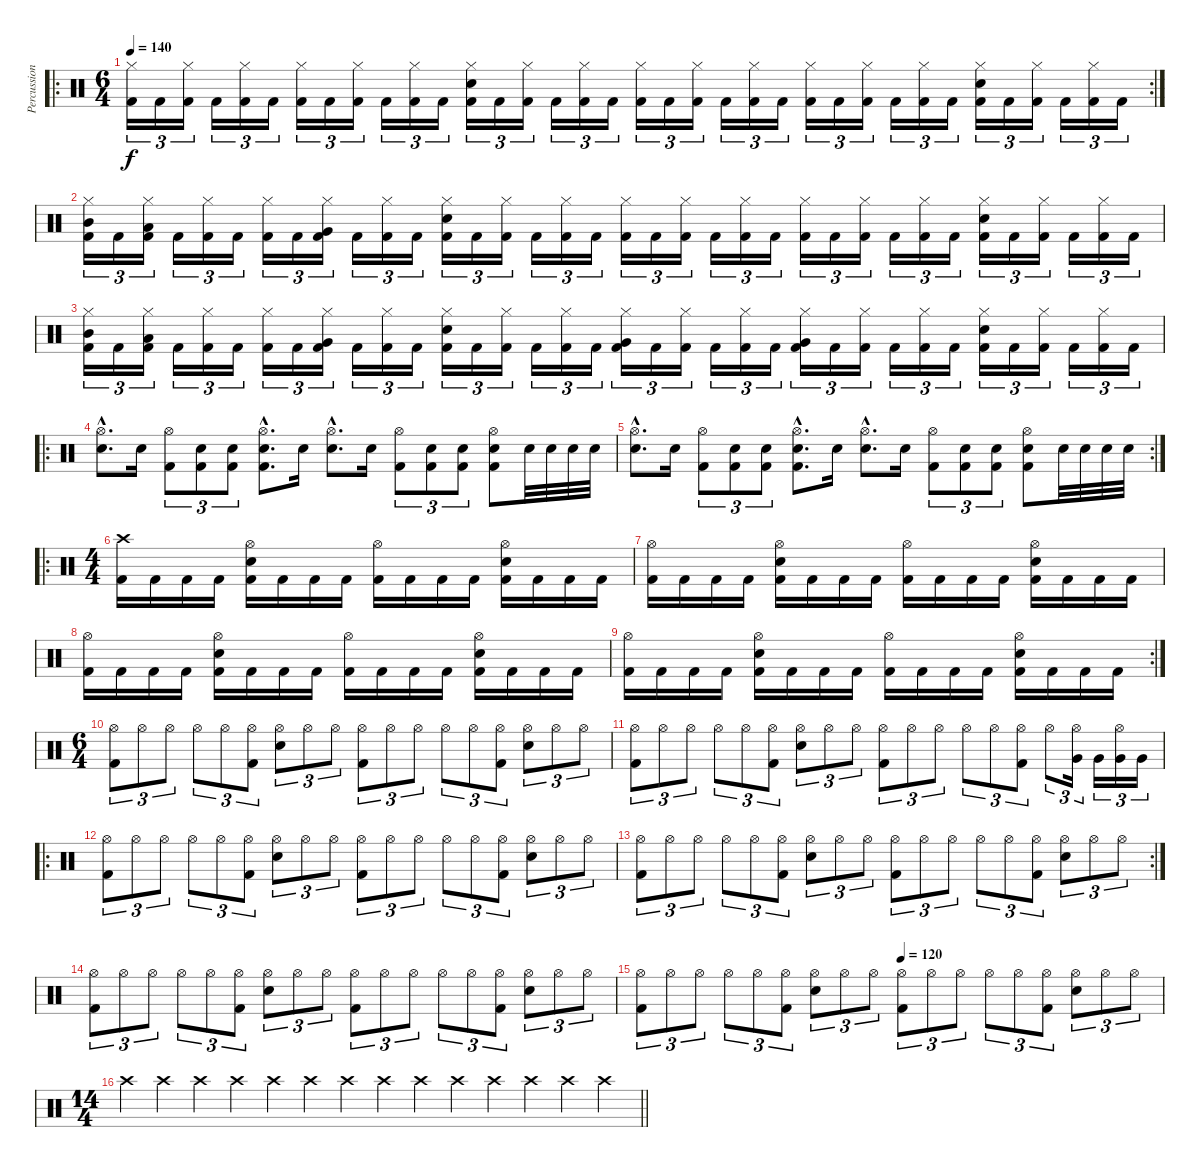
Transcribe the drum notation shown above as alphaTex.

\track ("Percussion" "Percussion") {instrument percussion}
\staff {score}
\articulation defaults
\ro
\rc 2
\ts (6 4)
\tempo 140
\clef neutral
\ks c
("Hi-Hat (closed)" "Kick (hit) 2").16{tu (3 2) dy f} "Kick (hit) 2".16{tu (3 2)} ("Hi-Hat (closed)" "Kick (hit) 2").16{tu (3 2)} "Kick (hit) 2".16{tu (3 2)} ("Hi-Hat (closed)" "Kick (hit) 2").16{tu (3 2)} "Kick (hit) 2".16{tu (3 2)} ("Hi-Hat (closed)" "Kick (hit) 2").16{tu (3 2)} "Kick (hit) 2".16{tu (3 2)} ("Hi-Hat (closed)" "Kick (hit) 2").16{tu (3 2)} "Kick (hit) 2".16{tu (3 2)} ("Hi-Hat (closed)" "Kick (hit) 2").16{tu (3 2)} "Kick (hit) 2".16{tu (3 2)} ("Hi-Hat (closed)" "Snare (hit) 2" "Kick (hit) 2").16{tu (3 2)} "Kick (hit) 2".16{tu (3 2)} ("Hi-Hat (closed)" "Kick (hit) 2").16{tu (3 2)} "Kick (hit) 2".16{tu (3 2)} ("Hi-Hat (closed)" "Kick (hit) 2").16{tu (3 2)} "Kick (hit) 2".16{tu (3 2)} ("Hi-Hat (closed)" "Kick (hit) 2").16{tu (3 2)} "Kick (hit) 2".16{tu (3 2)} ("Hi-Hat (closed)" "Kick (hit) 2").16{tu (3 2)} "Kick (hit) 2".16{tu (3 2)} ("Hi-Hat (closed)" "Kick (hit) 2").16{tu (3 2)} "Kick (hit) 2".16{tu (3 2)} ("Hi-Hat (closed)" "Kick (hit) 2").16{tu (3 2)} "Kick (hit) 2".16{tu (3 2)} ("Hi-Hat (closed)" "Kick (hit) 2").16{tu (3 2)} "Kick (hit) 2".16{tu (3 2)} ("Hi-Hat (closed)" "Kick (hit) 2").16{tu (3 2)} "Kick (hit) 2".16{tu (3 2)} ("Hi-Hat (closed)" "Snare (hit) 2" "Kick (hit) 2").16{tu (3 2)} "Kick (hit) 2".16{tu (3 2)} ("Hi-Hat (closed)" "Kick (hit) 2").16{tu (3 2)} "Kick (hit) 2".16{tu (3 2)} ("Hi-Hat (closed)" "Kick (hit) 2").16{tu (3 2)} "Kick (hit) 2".16{tu (3 2)} |
("Hi-Hat (closed)" "Mid Tom (hit)" "Kick (hit) 2").16{tu (3 2)} "Kick (hit) 2".16{tu (3 2)} ("Hi-Hat (closed)" "Low Tom (hit)" "Kick (hit) 2").16{tu (3 2)} "Kick (hit) 2".16{tu (3 2)} ("Hi-Hat (closed)" "Kick (hit) 2").16{tu (3 2)} "Kick (hit) 2".16{tu (3 2)} ("Hi-Hat (closed)" "Kick (hit) 2").16{tu (3 2)} "Kick (hit) 2".16{tu (3 2)} ("Hi-Hat (closed)" "Very Low Tom (hit)" "Kick (hit) 2").16{tu (3 2)} "Kick (hit) 2".16{tu (3 2)} ("Hi-Hat (closed)" "Kick (hit) 2").16{tu (3 2)} "Kick (hit) 2".16{tu (3 2)} ("Hi-Hat (closed)" "Snare (hit) 2" "Kick (hit) 2").16{tu (3 2)} "Kick (hit) 2".16{tu (3 2)} ("Hi-Hat (closed)" "Kick (hit) 2").16{tu (3 2)} "Kick (hit) 2".16{tu (3 2)} ("Hi-Hat (closed)" "Kick (hit) 2").16{tu (3 2)} "Kick (hit) 2".16{tu (3 2)} ("Hi-Hat (closed)" "Kick (hit) 2").16{tu (3 2)} "Kick (hit) 2".16{tu (3 2)} ("Hi-Hat (closed)" "Kick (hit) 2").16{tu (3 2)} "Kick (hit) 2".16{tu (3 2)} ("Hi-Hat (closed)" "Kick (hit) 2").16{tu (3 2)} "Kick (hit) 2".16{tu (3 2)} ("Hi-Hat (closed)" "Kick (hit) 2").16{tu (3 2)} "Kick (hit) 2".16{tu (3 2)} ("Hi-Hat (closed)" "Kick (hit) 2").16{tu (3 2)} "Kick (hit) 2".16{tu (3 2)} ("Hi-Hat (closed)" "Kick (hit) 2").16{tu (3 2)} "Kick (hit) 2".16{tu (3 2)} ("Hi-Hat (closed)" "Snare (hit) 2" "Kick (hit) 2").16{tu (3 2)} "Kick (hit) 2".16{tu (3 2)} ("Hi-Hat (closed)" "Kick (hit) 2").16{tu (3 2)} "Kick (hit) 2".16{tu (3 2)} ("Hi-Hat (closed)" "Kick (hit) 2").16{tu (3 2)} "Kick (hit) 2".16{tu (3 2)} |
("Hi-Hat (closed)" "Mid Tom (hit)" "Kick (hit) 2").16{tu (3 2)} "Kick (hit) 2".16{tu (3 2)} ("Hi-Hat (closed)" "Low Tom (hit)" "Kick (hit) 2").16{tu (3 2)} "Kick (hit) 2".16{tu (3 2)} ("Hi-Hat (closed)" "Kick (hit) 2").16{tu (3 2)} "Kick (hit) 2".16{tu (3 2)} ("Hi-Hat (closed)" "Kick (hit) 2").16{tu (3 2)} "Kick (hit) 2".16{tu (3 2)} ("Hi-Hat (closed)" "Very Low Tom (hit)" "Kick (hit) 2").16{tu (3 2)} "Kick (hit) 2".16{tu (3 2)} ("Hi-Hat (closed)" "Kick (hit) 2").16{tu (3 2)} "Kick (hit) 2".16{tu (3 2)} ("Hi-Hat (closed)" "Snare (hit) 2" "Kick (hit) 2").16{tu (3 2)} "Kick (hit) 2".16{tu (3 2)} ("Hi-Hat (closed)" "Kick (hit) 2").16{tu (3 2)} "Kick (hit) 2".16{tu (3 2)} ("Hi-Hat (closed)" "Kick (hit) 2").16{tu (3 2)} "Kick (hit) 2".16{tu (3 2)} ("Hi-Hat (closed)" "Very Low Tom (hit)" "Kick (hit) 2").16{tu (3 2)} "Kick (hit) 2".16{tu (3 2)} ("Hi-Hat (closed)" "Kick (hit) 2").16{tu (3 2)} "Kick (hit) 2".16{tu (3 2)} ("Hi-Hat (closed)" "Kick (hit) 2").16{tu (3 2)} "Kick (hit) 2".16{tu (3 2)} ("Hi-Hat (closed)" "Very Low Tom (hit)" "Kick (hit) 2").16{tu (3 2)} "Kick (hit) 2".16{tu (3 2)} ("Hi-Hat (closed)" "Kick (hit) 2").16{tu (3 2)} "Kick (hit) 2".16{tu (3 2)} ("Hi-Hat (closed)" "Kick (hit) 2").16{tu (3 2)} "Kick (hit) 2".16{tu (3 2)} ("Hi-Hat (closed)" "Snare (hit) 2" "Kick (hit) 2").16{tu (3 2)} "Kick (hit) 2".16{tu (3 2)} ("Hi-Hat (closed)" "Kick (hit) 2").16{tu (3 2)} "Kick (hit) 2".16{tu (3 2)} ("Hi-Hat (closed)" "Kick (hit) 2").16{tu (3 2)} "Kick (hit) 2".16{tu (3 2)} |
\ro
("Hi-Hat (open)"{hac} "Snare (hit) 2"{hac}).8{d} "Snare (hit) 2".16 ("Hi-Hat (open)" "Kick (hit) 2").8{tu (3 2)} ("Snare (hit) 2" "Kick (hit) 2").8{tu (3 2)} ("Snare (hit) 2" "Kick (hit) 2").8{tu (3 2)} ("Hi-Hat (open)"{hac} "Snare (hit) 2"{hac} "Kick (hit) 2"{hac}).8{d} "Snare (hit) 2".16 ("Hi-Hat (open)"{hac} "Snare (hit) 2"{hac}).8{d} "Snare (hit) 2".16 ("Hi-Hat (open)" "Kick (hit) 2").8{tu (3 2)} ("Snare (hit) 2" "Kick (hit) 2").8{tu (3 2)} ("Snare (hit) 2" "Kick (hit) 2").8{tu (3 2)} ("Hi-Hat (open)" "Snare (hit) 2" "Kick (hit) 2").8 "Snare (hit) 2".32 "Snare (hit) 2".32 "Snare (hit) 2".32 "Snare (hit) 2".32 |
\rc 2
("Hi-Hat (open)"{hac} "Snare (hit) 2"{hac}).8{d} "Snare (hit) 2".16 ("Hi-Hat (open)" "Kick (hit) 2").8{tu (3 2)} ("Snare (hit) 2" "Kick (hit) 2").8{tu (3 2)} ("Snare (hit) 2" "Kick (hit) 2").8{tu (3 2)} ("Hi-Hat (open)"{hac} "Snare (hit) 2"{hac} "Kick (hit) 2"{hac}).8{d} "Snare (hit) 2".16 ("Hi-Hat (open)"{hac} "Snare (hit) 2"{hac}).8{d} "Snare (hit) 2".16 ("Hi-Hat (open)" "Kick (hit) 2").8{tu (3 2)} ("Snare (hit) 2" "Kick (hit) 2").8{tu (3 2)} ("Snare (hit) 2" "Kick (hit) 2").8{tu (3 2)} ("Hi-Hat (open)" "Snare (hit) 2" "Kick (hit) 2").8 "Snare (hit) 2".32 "Snare (hit) 2".32 "Snare (hit) 2".32 "Snare (hit) 2".32 |
\ro
\ts (4 4)
("Crash high (hit)" "Kick (hit) 2").16 "Kick (hit) 2".16 "Kick (hit) 2".16 "Kick (hit) 2".16 ("Hi-Hat (open)" "Snare (hit) 2" "Kick (hit) 2").16 "Kick (hit) 2".16 "Kick (hit) 2".16 "Kick (hit) 2".16 ("Hi-Hat (open)" "Kick (hit) 2").16 "Kick (hit) 2".16 "Kick (hit) 2".16 "Kick (hit) 2".16 ("Hi-Hat (open)" "Snare (hit) 2" "Kick (hit) 2").16 "Kick (hit) 2".16 "Kick (hit) 2".16 "Kick (hit) 2".16 |
("Hi-Hat (open)" "Kick (hit) 2").16 "Kick (hit) 2".16 "Kick (hit) 2".16 "Kick (hit) 2".16 ("Hi-Hat (open)" "Snare (hit) 2" "Kick (hit) 2").16 "Kick (hit) 2".16 "Kick (hit) 2".16 "Kick (hit) 2".16 ("Hi-Hat (open)" "Kick (hit) 2").16 "Kick (hit) 2".16 "Kick (hit) 2".16 "Kick (hit) 2".16 ("Hi-Hat (open)" "Snare (hit) 2" "Kick (hit) 2").16 "Kick (hit) 2".16 "Kick (hit) 2".16 "Kick (hit) 2".16 |
("Hi-Hat (open)" "Kick (hit) 2").16 "Kick (hit) 2".16 "Kick (hit) 2".16 "Kick (hit) 2".16 ("Hi-Hat (open)" "Snare (hit) 2" "Kick (hit) 2").16 "Kick (hit) 2".16 "Kick (hit) 2".16 "Kick (hit) 2".16 ("Hi-Hat (open)" "Kick (hit) 2").16 "Kick (hit) 2".16 "Kick (hit) 2".16 "Kick (hit) 2".16 ("Hi-Hat (open)" "Snare (hit) 2" "Kick (hit) 2").16 "Kick (hit) 2".16 "Kick (hit) 2".16 "Kick (hit) 2".16 |
\rc 2
("Hi-Hat (open)" "Kick (hit) 2").16 "Kick (hit) 2".16 "Kick (hit) 2".16 "Kick (hit) 2".16 ("Hi-Hat (open)" "Snare (hit) 2" "Kick (hit) 2").16 "Kick (hit) 2".16 "Kick (hit) 2".16 "Kick (hit) 2".16 ("Hi-Hat (open)" "Kick (hit) 2").16 "Kick (hit) 2".16 "Kick (hit) 2".16 "Kick (hit) 2".16 ("Hi-Hat (open)" "Snare (hit) 2" "Kick (hit) 2").16 "Kick (hit) 2".16 "Kick (hit) 2".16 "Kick (hit) 2".16 |
\ts (6 4)
("Hi-Hat (open)" "Kick (hit) 2").8{tu (3 2)} "Hi-Hat (open)".8{tu (3 2)} "Hi-Hat (open)".8{tu (3 2)} "Hi-Hat (open)".8{tu (3 2)} "Hi-Hat (open)".8{tu (3 2)} ("Hi-Hat (open)" "Kick (hit) 2").8{tu (3 2)} ("Hi-Hat (open)" "Snare (hit) 2").8{tu (3 2)} "Hi-Hat (open)".8{tu (3 2)} "Hi-Hat (open)".8{tu (3 2)} ("Hi-Hat (open)" "Kick (hit) 2").8{tu (3 2)} "Hi-Hat (open)".8{tu (3 2)} "Hi-Hat (open)".8{tu (3 2)} "Hi-Hat (open)".8{tu (3 2)} "Hi-Hat (open)".8{tu (3 2)} ("Hi-Hat (open)" "Kick (hit) 2").8{tu (3 2)} ("Hi-Hat (open)" "Snare (hit) 2").8{tu (3 2)} "Hi-Hat (open)".8{tu (3 2)} "Hi-Hat (open)".8{tu (3 2)} |
("Hi-Hat (open)" "Kick (hit) 2").8{tu (3 2)} "Hi-Hat (open)".8{tu (3 2)} "Hi-Hat (open)".8{tu (3 2)} "Hi-Hat (open)".8{tu (3 2)} "Hi-Hat (open)".8{tu (3 2)} ("Hi-Hat (open)" "Kick (hit) 2").8{tu (3 2)} ("Hi-Hat (open)" "Snare (hit) 2").8{tu (3 2)} "Hi-Hat (open)".8{tu (3 2)} "Hi-Hat (open)".8{tu (3 2)} ("Hi-Hat (open)" "Kick (hit) 2").8{tu (3 2)} "Hi-Hat (open)".8{tu (3 2)} "Hi-Hat (open)".8{tu (3 2)} "Hi-Hat (open)".8{tu (3 2)} "Hi-Hat (open)".8{tu (3 2)} ("Hi-Hat (open)" "Kick (hit) 2").8{tu (3 2)} "Hi-Hat (open)".8{tu (3 2)} ("Hi-Hat (open)" "Very Low Tom (hit)").16{tu (3 2)} "Very Low Tom (hit)".16{tu (3 2)} ("Hi-Hat (open)" "Very Low Tom (hit)").16{tu (3 2)} "Very Low Tom (hit)".16{tu (3 2)} |
\ro
("Hi-Hat (open)" "Kick (hit) 2").8{tu (3 2)} "Hi-Hat (open)".8{tu (3 2)} "Hi-Hat (open)".8{tu (3 2)} "Hi-Hat (open)".8{tu (3 2)} "Hi-Hat (open)".8{tu (3 2)} ("Hi-Hat (open)" "Kick (hit) 2").8{tu (3 2)} ("Hi-Hat (open)" "Snare (hit) 2").8{tu (3 2)} "Hi-Hat (open)".8{tu (3 2)} "Hi-Hat (open)".8{tu (3 2)} ("Hi-Hat (open)" "Kick (hit) 2").8{tu (3 2)} "Hi-Hat (open)".8{tu (3 2)} "Hi-Hat (open)".8{tu (3 2)} "Hi-Hat (open)".8{tu (3 2)} "Hi-Hat (open)".8{tu (3 2)} ("Hi-Hat (open)" "Kick (hit) 2").8{tu (3 2)} ("Hi-Hat (open)" "Snare (hit) 2").8{tu (3 2)} "Hi-Hat (open)".8{tu (3 2)} "Hi-Hat (open)".8{tu (3 2)} |
\rc 2
("Hi-Hat (open)" "Kick (hit) 2").8{tu (3 2)} "Hi-Hat (open)".8{tu (3 2)} "Hi-Hat (open)".8{tu (3 2)} "Hi-Hat (open)".8{tu (3 2)} "Hi-Hat (open)".8{tu (3 2)} ("Hi-Hat (open)" "Kick (hit) 2").8{tu (3 2)} ("Hi-Hat (open)" "Snare (hit) 2").8{tu (3 2)} "Hi-Hat (open)".8{tu (3 2)} "Hi-Hat (open)".8{tu (3 2)} ("Hi-Hat (open)" "Kick (hit) 2").8{tu (3 2)} "Hi-Hat (open)".8{tu (3 2)} "Hi-Hat (open)".8{tu (3 2)} "Hi-Hat (open)".8{tu (3 2)} "Hi-Hat (open)".8{tu (3 2)} ("Hi-Hat (open)" "Kick (hit) 2").8{tu (3 2)} ("Hi-Hat (open)" "Snare (hit) 2").8{tu (3 2)} "Hi-Hat (open)".8{tu (3 2)} "Hi-Hat (open)".8{tu (3 2)} |
("Hi-Hat (open)" "Kick (hit) 2").8{tu (3 2)} "Hi-Hat (open)".8{tu (3 2)} "Hi-Hat (open)".8{tu (3 2)} "Hi-Hat (open)".8{tu (3 2)} "Hi-Hat (open)".8{tu (3 2)} ("Hi-Hat (open)" "Kick (hit) 2").8{tu (3 2)} ("Hi-Hat (open)" "Snare (hit) 2").8{tu (3 2)} "Hi-Hat (open)".8{tu (3 2)} "Hi-Hat (open)".8{tu (3 2)} ("Hi-Hat (open)" "Kick (hit) 2").8{tu (3 2)} "Hi-Hat (open)".8{tu (3 2)} "Hi-Hat (open)".8{tu (3 2)} "Hi-Hat (open)".8{tu (3 2)} "Hi-Hat (open)".8{tu (3 2)} ("Hi-Hat (open)" "Kick (hit) 2").8{tu (3 2)} ("Hi-Hat (open)" "Snare (hit) 2").8{tu (3 2)} "Hi-Hat (open)".8{tu (3 2)} "Hi-Hat (open)".8{tu (3 2)} |
\tempo (120 0.5)
("Hi-Hat (open)" "Kick (hit) 2").8{tu (3 2)} "Hi-Hat (open)".8{tu (3 2)} "Hi-Hat (open)".8{tu (3 2)} "Hi-Hat (open)".8{tu (3 2)} "Hi-Hat (open)".8{tu (3 2)} ("Hi-Hat (open)" "Kick (hit) 2").8{tu (3 2)} ("Hi-Hat (open)" "Snare (hit) 2").8{tu (3 2)} "Hi-Hat (open)".8{tu (3 2)} "Hi-Hat (open)".8{tu (3 2)} ("Hi-Hat (open)" "Kick (hit) 2").8{tu (3 2)} "Hi-Hat (open)".8{tu (3 2)} "Hi-Hat (open)".8{tu (3 2)} "Hi-Hat (open)".8{tu (3 2)} "Hi-Hat (open)".8{tu (3 2)} ("Hi-Hat (open)" "Kick (hit) 2").8{tu (3 2)} ("Hi-Hat (open)" "Snare (hit) 2").8{tu (3 2)} "Hi-Hat (open)".8{tu (3 2)} "Hi-Hat (open)".8{tu (3 2)} |
\ts (14 4)
\barLineRight lightlight "Crash high (hit)".4 "Crash high (hit)".4 "Crash high (hit)".4 "Crash high (hit)".4 "Crash high (hit)".4 "Crash high (hit)".4 "Crash high (hit)".4 "Crash high (hit)".4 "Crash high (hit)".4 "Crash high (hit)".4 "Crash high (hit)".4 "Crash high (hit)".4 "Crash high (hit)".4 "Crash high (hit)".4
